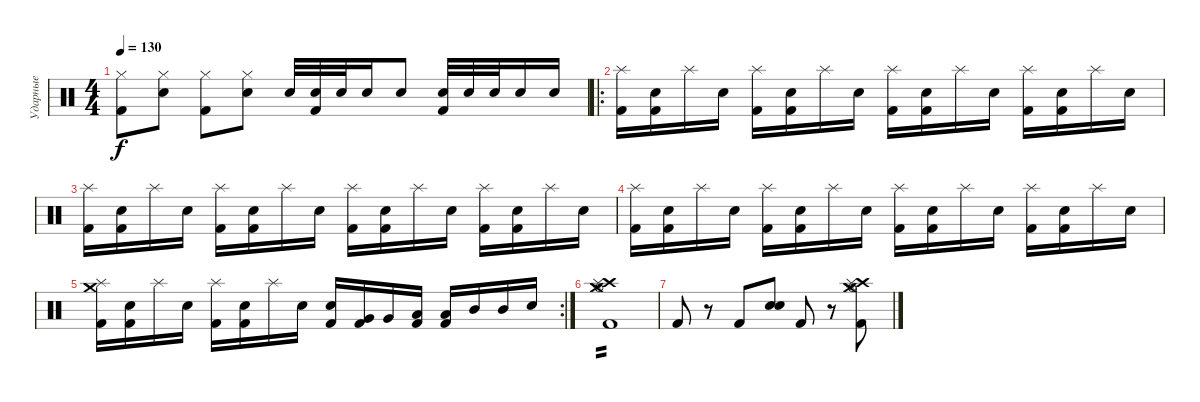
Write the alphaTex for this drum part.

\track ("Ударные" "Ударные") {instrument percussion}
\staff {score}
\articulation defaults
\ts (4 4)
\tempo 130
\clef neutral
\ks c
("Hi-Hat (closed)" "Kick (hit) 2").8{dy f} ("Hi-Hat (closed)" "Snare (hit) 2").8 ("Hi-Hat (closed)" "Kick (hit) 2").8 ("Hi-Hat (closed)" "Snare (hit) 2").8 "Snare (hit) 2".32 ("Snare (hit) 2" "Kick (hit) 2").32 "Snare (hit) 2".32 "Snare (hit) 2".16 "Snare (hit) 2".8 ("Snare (hit) 2" "Kick (hit) 2").32 "Snare (hit) 2".32 "Snare (hit) 2".32 "Snare (hit) 2".16 "Snare (hit) 2".16 |
\ro
("Splash (hit)" "Kick (hit) 2").16 ("Electric Snare (hit)" "Kick (hit) 2").16 "Splash (hit)".16 "Electric Snare (hit)".16 ("Splash (hit)" "Kick (hit) 2").16 ("Electric Snare (hit)" "Kick (hit) 2").16 "Splash (hit)".16 "Electric Snare (hit)".16 ("Splash (hit)" "Kick (hit) 2").16 ("Electric Snare (hit)" "Kick (hit) 2").16 "Splash (hit)".16 "Electric Snare (hit)".16 ("Splash (hit)" "Kick (hit) 2").16 ("Electric Snare (hit)" "Kick (hit) 2").16 "Splash (hit)".16 "Electric Snare (hit)".16 |
("Splash (hit)" "Kick (hit) 2").16 ("Electric Snare (hit)" "Kick (hit) 2").16 "Splash (hit)".16 "Electric Snare (hit)".16 ("Splash (hit)" "Kick (hit) 2").16 ("Electric Snare (hit)" "Kick (hit) 2").16 "Splash (hit)".16 "Electric Snare (hit)".16 ("Splash (hit)" "Kick (hit) 2").16 ("Electric Snare (hit)" "Kick (hit) 2").16 "Splash (hit)".16 "Electric Snare (hit)".16 ("Splash (hit)" "Kick (hit) 2").16 ("Electric Snare (hit)" "Kick (hit) 2").16 "Splash (hit)".16 "Electric Snare (hit)".16 |
("Splash (hit)" "Kick (hit) 2").16 ("Electric Snare (hit)" "Kick (hit) 2").16 "Splash (hit)".16 "Electric Snare (hit)".16 ("Splash (hit)" "Kick (hit) 2").16 ("Electric Snare (hit)" "Kick (hit) 2").16 "Splash (hit)".16 "Electric Snare (hit)".16 ("Splash (hit)" "Kick (hit) 2").16 ("Electric Snare (hit)" "Kick (hit) 2").16 "Splash (hit)".16 "Electric Snare (hit)".16 ("Splash (hit)" "Kick (hit) 2").16 ("Electric Snare (hit)" "Kick (hit) 2").16 "Splash (hit)".16 "Electric Snare (hit)".16 |
\rc 2
("Crash medium (hit)" "Splash (hit)" "Kick (hit) 2").16 ("Electric Snare (hit)" "Kick (hit) 2").16 "Splash (hit)".16 "Electric Snare (hit)".16 ("Splash (hit)" "Kick (hit) 2").16 ("Electric Snare (hit)" "Kick (hit) 2").16 "Splash (hit)".16 "Electric Snare (hit)".16 ("Electric Snare (hit)" "Kick (hit) 2").16 ("Very Low Tom (hit)" "Kick (hit) 2").16 "Very Low Tom (hit)".16 ("Low Tom (hit)" "Kick (hit) 2").16 ("Low Tom (hit)" "Kick (hit) 2").16 "Mid Tom (hit)".16 "Mid Tom (hit)".16 "Snare (hit) 2".16 |
("Crash medium (hit)" "Crash high (hit)" "Splash (hit)" "Hi-Hat (open)" "Kick (hit) 2").1{tp 2} |
"Kick (hit) 2".8 r.8 "Kick (hit) 2".8 ("Snare (hit) 2" "Electric Snare (hit)").8 "Kick (hit) 2".8 r.8 ("Crash medium (hit)" "Crash high (hit)" "Splash (hit)" "Hi-Hat (open)" "Kick (hit) 2").8
